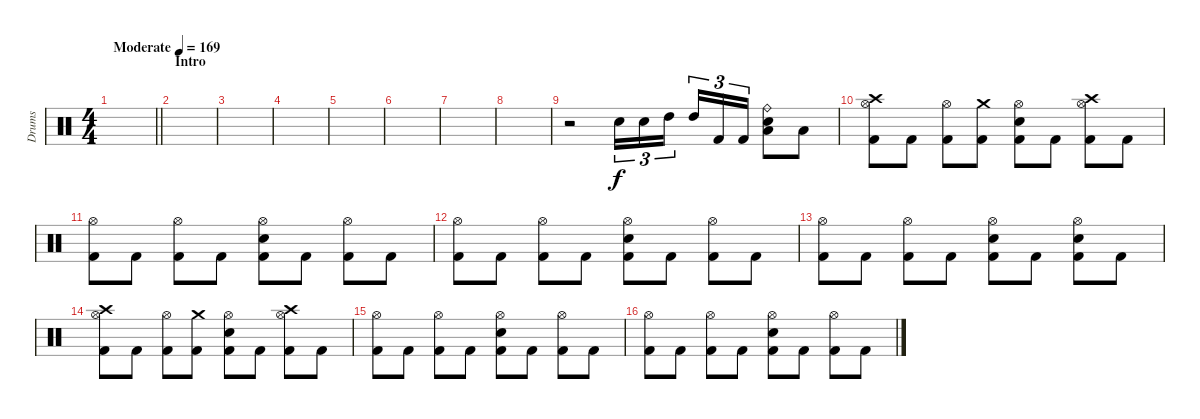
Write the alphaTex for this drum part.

\track ("Drums" "Drums") {instrument percussion}
\staff {score}
\articulation defaults
\ts (4 4)
\tempo (169 "Moderate")
\clef neutral
\barLineRight lightlight
\ks c
|
\section ("" "Intro")
|
|
|
|
|
|
|
r.2 "Snare (hit) 2".16{tu (3 2)} "Snare (hit) 2".16{tu (3 2)} "High Tom (hit)".16{tu (3 2) beam splitsecondary} "High Tom (hit)".16{tu (3 2)} "Kick (hit) 2".16{tu (3 2)} "Kick (hit) 2".16{tu (3 2)} ("Ride (bell)" "Snare (hit) 2" "Low Tom (hit)").8 "Low Tom (hit)".8 |
("Crash high (hit)" "Hi-Hat (open)" "Kick (hit) 2").8 "Kick (hit) 2".8 ("Hi-Hat (open)" "Kick (hit) 2").8 ("Crash medium (hit)" "Kick (hit) 2").8 ("Hi-Hat (open)" "Snare (hit) 2" "Kick (hit) 2").8 "Kick (hit) 2".8 ("Crash high (hit)" "Hi-Hat (open)" "Kick (hit) 2").8 "Kick (hit) 2".8 |
("Hi-Hat (open)" "Kick (hit) 2").8 "Kick (hit) 2".8 ("Hi-Hat (open)" "Kick (hit) 2").8 "Kick (hit) 2".8 ("Hi-Hat (open)" "Snare (hit) 2" "Kick (hit) 2").8 "Kick (hit) 2".8 ("Hi-Hat (open)" "Kick (hit) 2").8 "Kick (hit) 2".8 |
("Hi-Hat (open)" "Kick (hit) 2").8 "Kick (hit) 2".8 ("Hi-Hat (open)" "Kick (hit) 2").8 "Kick (hit) 2".8 ("Hi-Hat (open)" "Snare (hit) 2" "Kick (hit) 2").8 "Kick (hit) 2".8 ("Hi-Hat (open)" "Kick (hit) 2").8 "Kick (hit) 2".8 |
("Hi-Hat (open)" "Kick (hit) 2").8 "Kick (hit) 2".8 ("Hi-Hat (open)" "Kick (hit) 2").8 "Kick (hit) 2".8 ("Hi-Hat (open)" "Snare (hit) 2" "Kick (hit) 2").8 "Kick (hit) 2".8 ("Hi-Hat (open)" "Snare (hit) 2" "Kick (hit) 2").8 "Kick (hit) 2".8 |
("Crash high (hit)" "Hi-Hat (open)" "Kick (hit) 2").8 "Kick (hit) 2".8 ("Hi-Hat (open)" "Kick (hit) 2").8 ("Crash medium (hit)" "Kick (hit) 2").8 ("Hi-Hat (open)" "Snare (hit) 2" "Kick (hit) 2").8 "Kick (hit) 2".8 ("Crash high (hit)" "Hi-Hat (open)" "Kick (hit) 2").8 "Kick (hit) 2".8 |
("Hi-Hat (open)" "Kick (hit) 2").8 "Kick (hit) 2".8 ("Hi-Hat (open)" "Kick (hit) 2").8 "Kick (hit) 2".8 ("Hi-Hat (open)" "Snare (hit) 2" "Kick (hit) 2").8 "Kick (hit) 2".8 ("Hi-Hat (open)" "Kick (hit) 2").8 "Kick (hit) 2".8 |
("Hi-Hat (open)" "Kick (hit) 2").8 "Kick (hit) 2".8 ("Hi-Hat (open)" "Kick (hit) 2").8 "Kick (hit) 2".8 ("Hi-Hat (open)" "Snare (hit) 2" "Kick (hit) 2").8 "Kick (hit) 2".8 ("Hi-Hat (open)" "Kick (hit) 2").8 "Kick (hit) 2".8
